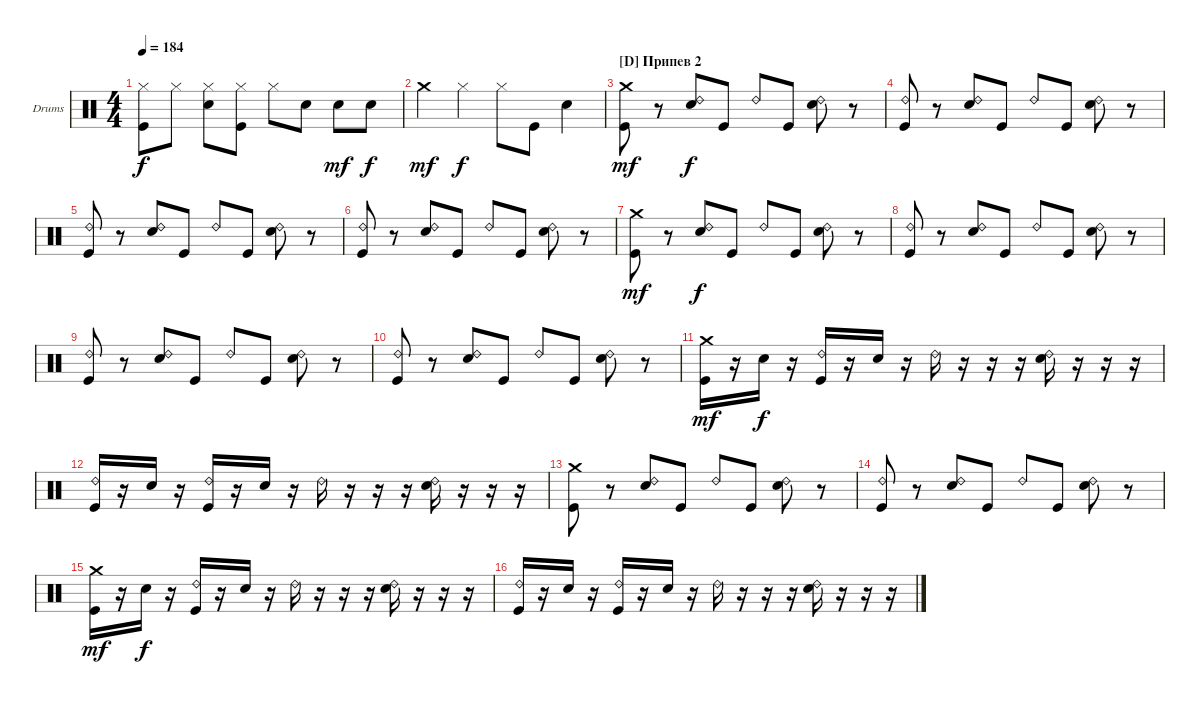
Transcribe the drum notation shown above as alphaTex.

\bracketExtendMode groupsimilarinstruments
\firstSystemTrackNameOrientation horizontal
\otherSystemsTrackNameOrientation horizontal
\track ("Drumkit" "Drums") {instrument percussion}
\staff {score}
\articulation defaults
\ts (4 4)
\tempo 184
\clef neutral
\ks c
("Hi-Hat (closed)" "Kick (hit)").8{dy f} "Hi-Hat (closed)".8 ("Hi-Hat (closed)" "Snare (hit) 2").8 ("Hi-Hat (closed)" "Kick (hit)").8 "Hi-Hat (closed)".8 "Snare (hit) 2".8 "Snare (hit) 2".8{dy mf} "Snare (hit) 2".8{dy f} |
"Crash medium (hit)".4{dy mf} "Hi-Hat (closed)".4{dy f} "Hi-Hat (closed)".8 "Kick (hit)".8 "Snare (hit) 2".4 |
\section ("D" "Припев 2")
("Crash medium (hit)" "Kick (hit)").8{dy mf} r.8 ("Ride (bell) 2" "Snare (hit) 2").8{dy f} "Kick (hit)".8 "Ride (bell) 2".8 "Kick (hit)".8 ("Ride (bell) 2" "Snare (hit) 2").8 r.8 |
("Ride (bell) 2" "Kick (hit)").8 r.8 ("Ride (bell) 2" "Snare (hit) 2").8 "Kick (hit)".8 "Ride (bell) 2".8 "Kick (hit)".8 ("Ride (bell) 2" "Snare (hit) 2").8 r.8 |
("Ride (bell) 2" "Kick (hit)").8 r.8 ("Ride (bell) 2" "Snare (hit) 2").8 "Kick (hit)".8 "Ride (bell) 2".8 "Kick (hit)".8 ("Ride (bell) 2" "Snare (hit) 2").8 r.8 |
("Ride (bell) 2" "Kick (hit)").8 r.8 ("Ride (bell) 2" "Snare (hit) 2").8 "Kick (hit)".8 "Ride (bell) 2".8 "Kick (hit)".8 ("Ride (bell) 2" "Snare (hit) 2").8 r.8 |
("Crash medium (hit)" "Kick (hit)").8{dy mf} r.8 ("Ride (bell) 2" "Snare (hit) 2").8{dy f} "Kick (hit)".8 "Ride (bell) 2".8 "Kick (hit)".8 ("Ride (bell) 2" "Snare (hit) 2").8 r.8 |
("Ride (bell) 2" "Kick (hit)").8 r.8 ("Ride (bell) 2" "Snare (hit) 2").8 "Kick (hit)".8 "Ride (bell) 2".8 "Kick (hit)".8 ("Ride (bell) 2" "Snare (hit) 2").8 r.8 |
("Ride (bell) 2" "Kick (hit)").8 r.8 ("Ride (bell) 2" "Snare (hit) 2").8 "Kick (hit)".8 "Ride (bell) 2".8 "Kick (hit)".8 ("Ride (bell) 2" "Snare (hit) 2").8 r.8 |
("Ride (bell) 2" "Kick (hit)").8 r.8 ("Ride (bell) 2" "Snare (hit) 2").8 "Kick (hit)".8 "Ride (bell) 2".8 "Kick (hit)".8 ("Ride (bell) 2" "Snare (hit) 2").8 r.8 |
("Crash medium (hit)" "Kick (hit)").16{dy mf} r.16 "Snare (hit) 2".16{dy f} r.16 ("Ride (bell) 2" "Kick (hit)").16 r.16 "Snare (hit) 2".16 r.16 "Ride (bell) 2".16 r.16 r.16 r.16 ("Ride (bell) 2" "Snare (hit) 2").16 r.16 r.16 r.16 |
("Ride (bell) 2" "Kick (hit)").16 r.16 "Snare (hit) 2".16 r.16 ("Ride (bell) 2" "Kick (hit)").16 r.16 "Snare (hit) 2".16 r.16 "Ride (bell) 2".16 r.16 r.16 r.16 ("Ride (bell) 2" "Snare (hit) 2").16 r.16 r.16 r.16 |
("Crash medium (hit)" "Kick (hit)").8 r.8 ("Ride (bell) 2" "Snare (hit) 2").8 "Kick (hit)".8 "Ride (bell) 2".8 "Kick (hit)".8 ("Ride (bell) 2" "Snare (hit) 2").8 r.8 |
("Ride (bell) 2" "Kick (hit)").8 r.8 ("Ride (bell) 2" "Snare (hit) 2").8 "Kick (hit)".8 "Ride (bell) 2".8 "Kick (hit)".8 ("Ride (bell) 2" "Snare (hit) 2").8 r.8 |
("Crash medium (hit)" "Kick (hit)").16{dy mf} r.16 "Snare (hit) 2".16{dy f} r.16 ("Ride (bell) 2" "Kick (hit)").16 r.16 "Snare (hit) 2".16 r.16 "Ride (bell) 2".16 r.16 r.16 r.16 ("Ride (bell) 2" "Snare (hit) 2").16 r.16 r.16 r.16 |
("Ride (bell) 2" "Kick (hit)").16 r.16 "Snare (hit) 2".16 r.16 ("Ride (bell) 2" "Kick (hit)").16 r.16 "Snare (hit) 2".16 r.16 "Ride (bell) 2".16 r.16 r.16 r.16 ("Ride (bell) 2" "Snare (hit) 2").16 r.16 r.16 r.16
